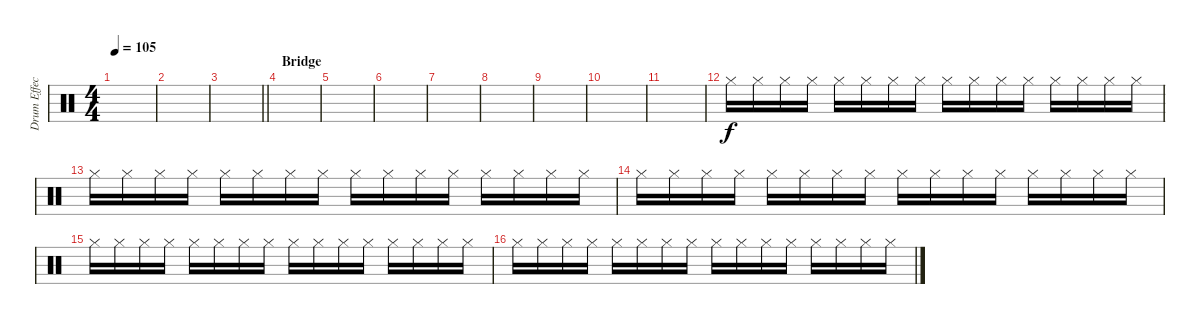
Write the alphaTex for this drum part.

\track ("Drum Effects" "Drum Effec") {instrument percussion}
\staff {score}
\articulation defaults
\ts (4 4)
\tempo 105
\clef neutral
\ks c
|
|
\barLineRight lightlight
|
\section ("" "Bridge")
|
|
|
|
|
|
|
|
"Hi-Hat (closed)".16 "Hi-Hat (closed)".16 "Hi-Hat (closed)".16 "Hi-Hat (closed)".16 "Hi-Hat (closed)".16 "Hi-Hat (closed)".16 "Hi-Hat (closed)".16 "Hi-Hat (closed)".16 "Hi-Hat (closed)".16 "Hi-Hat (closed)".16 "Hi-Hat (closed)".16 "Hi-Hat (closed)".16 "Hi-Hat (closed)".16 "Hi-Hat (closed)".16 "Hi-Hat (closed)".16 "Hi-Hat (closed)".16 |
"Hi-Hat (closed)".16 "Hi-Hat (closed)".16 "Hi-Hat (closed)".16 "Hi-Hat (closed)".16 "Hi-Hat (closed)".16 "Hi-Hat (closed)".16 "Hi-Hat (closed)".16 "Hi-Hat (closed)".16 "Hi-Hat (closed)".16 "Hi-Hat (closed)".16 "Hi-Hat (closed)".16 "Hi-Hat (closed)".16 "Hi-Hat (closed)".16 "Hi-Hat (closed)".16 "Hi-Hat (closed)".16 "Hi-Hat (closed)".16 |
"Hi-Hat (closed)".16 "Hi-Hat (closed)".16 "Hi-Hat (closed)".16 "Hi-Hat (closed)".16 "Hi-Hat (closed)".16 "Hi-Hat (closed)".16 "Hi-Hat (closed)".16 "Hi-Hat (closed)".16 "Hi-Hat (closed)".16 "Hi-Hat (closed)".16 "Hi-Hat (closed)".16 "Hi-Hat (closed)".16 "Hi-Hat (closed)".16 "Hi-Hat (closed)".16 "Hi-Hat (closed)".16 "Hi-Hat (closed)".16 |
"Hi-Hat (closed)".16 "Hi-Hat (closed)".16 "Hi-Hat (closed)".16 "Hi-Hat (closed)".16 "Hi-Hat (closed)".16 "Hi-Hat (closed)".16 "Hi-Hat (closed)".16 "Hi-Hat (closed)".16 "Hi-Hat (closed)".16 "Hi-Hat (closed)".16 "Hi-Hat (closed)".16 "Hi-Hat (closed)".16 "Hi-Hat (closed)".16 "Hi-Hat (closed)".16 "Hi-Hat (closed)".16 "Hi-Hat (closed)".16 |
"Hi-Hat (closed)".16 "Hi-Hat (closed)".16 "Hi-Hat (closed)".16 "Hi-Hat (closed)".16 "Hi-Hat (closed)".16 "Hi-Hat (closed)".16 "Hi-Hat (closed)".16 "Hi-Hat (closed)".16 "Hi-Hat (closed)".16 "Hi-Hat (closed)".16 "Hi-Hat (closed)".16 "Hi-Hat (closed)".16 "Hi-Hat (closed)".16 "Hi-Hat (closed)".16 "Hi-Hat (closed)".16 "Hi-Hat (closed)".16
